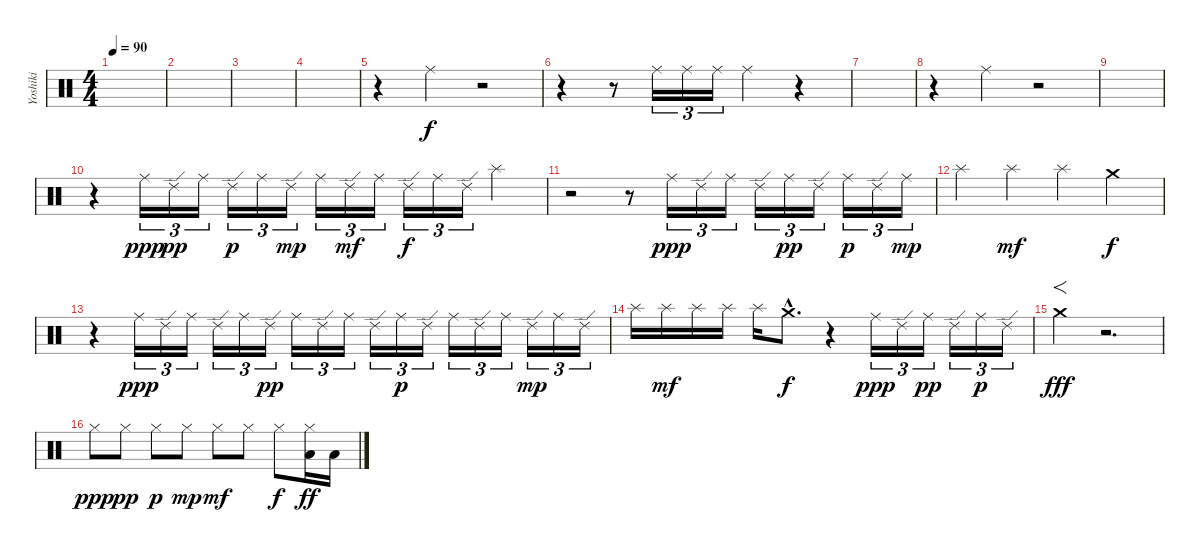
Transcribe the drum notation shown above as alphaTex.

\track ("Yoshiki" "Yoshiki") {instrument percussion}
\staff {score}
\articulation defaults
\ts (4 4)
\tempo 90
\clef neutral
\ks c
|
|
|
|
r.4 "Ride (middle)".4 r.2 |
r.4 r.8 "Ride (middle)".16{tu (3 2)} "Ride (middle)".16{tu (3 2)} "Ride (middle)".16{tu (3 2)} "Ride (middle)".4 r.4 |
|
r.4 "Ride (middle)".4 r.2 |
|
r.4 "Ride (middle)".16{tu (3 2) dy ppp} "Ride (edge) 2".16{tu (3 2) dy pp} "Ride (middle)".16{tu (3 2)} "Ride (edge) 2".16{tu (3 2) dy p} "Ride (middle)".16{tu (3 2)} "Ride (edge) 2".16{tu (3 2) dy mp} "Ride (middle)".16{tu (3 2)} "Ride (edge) 2".16{tu (3 2) dy mf} "Ride (middle)".16{tu (3 2)} "Ride (edge) 2".16{tu (3 2) dy f} "Ride (middle)".16{tu (3 2)} "Ride (edge) 2".16{tu (3 2)} "Splash (hit)".4 |
r.2 r.8 "Ride (middle)".16{tu (3 2) dy ppp} "Ride (edge) 2".16{tu (3 2)} "Ride (middle)".16{tu (3 2)} "Ride (edge) 2".16{tu (3 2)} "Ride (middle)".16{tu (3 2) dy pp} "Ride (edge) 2".16{tu (3 2)} "Ride (middle)".16{tu (3 2) dy p} "Ride (edge) 2".16{tu (3 2)} "Ride (middle)".16{tu (3 2) dy mp} |
"Splash (hit)".4 "Splash (hit)".4{dy mf} "Splash (hit)".4 "Crash medium (hit)".4{dy f} |
r.4 "Ride (middle)".16{tu (3 2) dy ppp} "Ride (edge) 2".16{tu (3 2)} "Ride (middle)".16{tu (3 2)} "Ride (edge) 2".16{tu (3 2)} "Ride (middle)".16{tu (3 2)} "Ride (edge) 2".16{tu (3 2) dy pp} "Ride (middle)".16{tu (3 2)} "Ride (edge) 2".16{tu (3 2)} "Ride (middle)".16{tu (3 2)} "Ride (edge) 2".16{tu (3 2)} "Ride (middle)".16{tu (3 2) dy p} "Ride (edge) 2".16{tu (3 2)} "Ride (middle)".16{tu (3 2)} "Ride (edge) 2".16{tu (3 2)} "Ride (middle)".16{tu (3 2)} "Ride (edge) 2".16{tu (3 2) dy mp} "Ride (middle)".16{tu (3 2)} "Ride (edge) 2".16{tu (3 2)} |
"Splash (hit)".16 "Splash (hit)".16{dy mf} "Splash (hit)".16 "Splash (hit)".16 "Splash (hit)".16 "Crash medium (hit)"{hac}.8{d dy f} r.4 "Ride (middle)".16{tu (3 2) dy ppp} "Ride (edge) 2".16{tu (3 2)} "Ride (middle)".16{tu (3 2) dy pp} "Ride (edge) 2".16{tu (3 2)} "Ride (middle)".16{tu (3 2) dy p} "Ride (edge) 2".16{tu (3 2)} |
"Crash medium (hit)".4{f dy fff} r.2{d} |
"Hi-Hat (closed)".8{dy ppp} "Hi-Hat (closed)".8{dy pp} "Hi-Hat (closed)".8{dy p} "Hi-Hat (closed)".8{dy mp} "Hi-Hat (closed)".8{dy mf} "Hi-Hat (closed)".8 "Hi-Hat (closed)".8{dy f} ("Hi-Hat (closed)" "Low Floor Tom (hit)").16{dy ff} "Low Floor Tom (hit)".16
